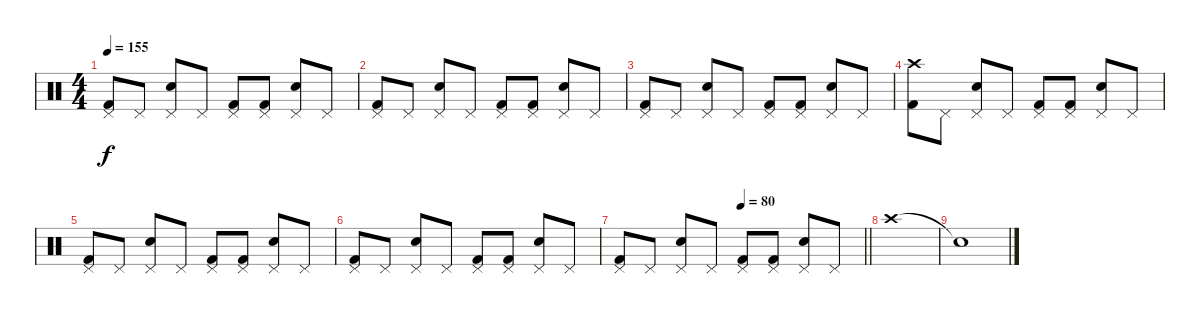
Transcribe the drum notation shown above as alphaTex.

\track "" {instrument percussion}
\staff {score}
\articulation defaults
\ts (4 4)
\tempo 155
\clef neutral
\ks c
("Pedal Hi-Hat (hit)" "Kick (hit) 2").8{dy f} "Pedal Hi-Hat (hit)".8 ("Pedal Hi-Hat (hit)" "Electric Snare (hit)").8 "Pedal Hi-Hat (hit)".8 ("Pedal Hi-Hat (hit)" "Kick (hit) 2").8 ("Pedal Hi-Hat (hit)" "Kick (hit) 2").8 ("Pedal Hi-Hat (hit)" "Electric Snare (hit)").8 "Pedal Hi-Hat (hit)".8 |
("Pedal Hi-Hat (hit)" "Kick (hit) 2").8 "Pedal Hi-Hat (hit)".8 ("Pedal Hi-Hat (hit)" "Electric Snare (hit)").8 "Pedal Hi-Hat (hit)".8 ("Pedal Hi-Hat (hit)" "Kick (hit) 2").8 ("Pedal Hi-Hat (hit)" "Kick (hit) 2").8 ("Pedal Hi-Hat (hit)" "Electric Snare (hit)").8 "Pedal Hi-Hat (hit)".8 |
("Pedal Hi-Hat (hit)" "Kick (hit) 2").8 "Pedal Hi-Hat (hit)".8 ("Pedal Hi-Hat (hit)" "Electric Snare (hit)").8 "Pedal Hi-Hat (hit)".8 ("Pedal Hi-Hat (hit)" "Kick (hit) 2").8 ("Pedal Hi-Hat (hit)" "Kick (hit) 2").8 ("Pedal Hi-Hat (hit)" "Electric Snare (hit)").8 "Pedal Hi-Hat (hit)".8 |
("Crash high (hit)" "Kick (hit) 2").8 "Pedal Hi-Hat (hit)".8 ("Pedal Hi-Hat (hit)" "Electric Snare (hit)").8 "Pedal Hi-Hat (hit)".8 ("Pedal Hi-Hat (hit)" "Kick (hit) 2").8 ("Pedal Hi-Hat (hit)" "Kick (hit) 2").8 ("Pedal Hi-Hat (hit)" "Electric Snare (hit)").8 "Pedal Hi-Hat (hit)".8 |
("Pedal Hi-Hat (hit)" "Kick (hit) 2").8 "Pedal Hi-Hat (hit)".8 ("Pedal Hi-Hat (hit)" "Electric Snare (hit)").8 "Pedal Hi-Hat (hit)".8 ("Pedal Hi-Hat (hit)" "Kick (hit) 2").8 ("Pedal Hi-Hat (hit)" "Kick (hit) 2").8 ("Pedal Hi-Hat (hit)" "Electric Snare (hit)").8 "Pedal Hi-Hat (hit)".8 |
("Pedal Hi-Hat (hit)" "Kick (hit) 2").8 "Pedal Hi-Hat (hit)".8 ("Pedal Hi-Hat (hit)" "Electric Snare (hit)").8 "Pedal Hi-Hat (hit)".8 ("Pedal Hi-Hat (hit)" "Kick (hit) 2").8 ("Pedal Hi-Hat (hit)" "Kick (hit) 2").8 ("Pedal Hi-Hat (hit)" "Electric Snare (hit)").8 "Pedal Hi-Hat (hit)".8 |
\tempo (80 0.5)
\barLineRight lightlight
("Pedal Hi-Hat (hit)" "Kick (hit) 2").8 "Pedal Hi-Hat (hit)".8 ("Pedal Hi-Hat (hit)" "Electric Snare (hit)").8 "Pedal Hi-Hat (hit)".8 ("Pedal Hi-Hat (hit)" "Kick (hit) 2").8 ("Pedal Hi-Hat (hit)" "Kick (hit) 2").8 ("Pedal Hi-Hat (hit)" "Electric Snare (hit)").8 "Pedal Hi-Hat (hit)".8 |
"Crash high (hit)".1 |
"Snare (hit)"{t}.1
